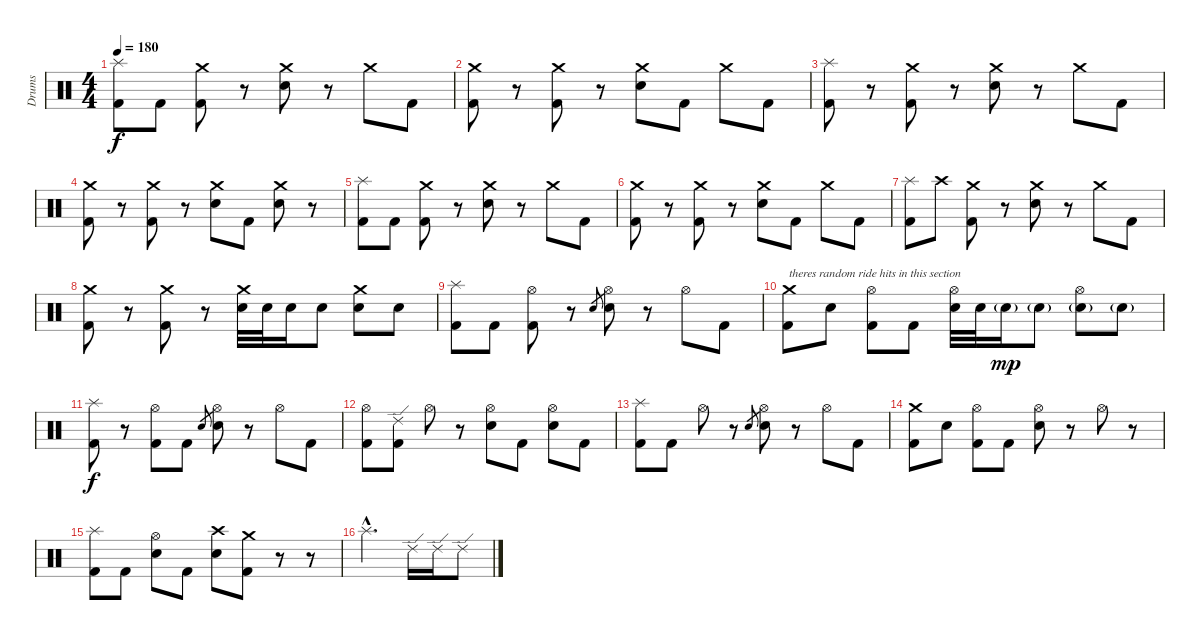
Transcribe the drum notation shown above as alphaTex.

\track ("Drums" "Drums") {instrument percussion}
\staff {score}
\articulation defaults
\ts (4 4)
\tempo 180
\clef neutral
\ks c
("Splash (hit)" "Kick (hit) 2").8{dy f} "Kick (hit) 2".8 ("Crash medium (hit)" "Kick (hit) 2").8 r.8 ("Crash medium (hit)" "Snare (hit) 2").8 r.8 "Crash medium (hit)".8 "Kick (hit) 2".8 |
("Crash medium (hit)" "Kick (hit) 2").8 r.8 ("Crash medium (hit)" "Kick (hit) 2").8 r.8 ("Crash medium (hit)" "Snare (hit) 2").8 "Kick (hit) 2".8 "Crash medium (hit)".8 "Kick (hit) 2".8 |
("Splash (hit)" "Kick (hit) 2").8 r.8 ("Crash medium (hit)" "Kick (hit) 2").8 r.8 ("Crash medium (hit)" "Snare (hit) 2").8 r.8 "Crash medium (hit)".8 "Kick (hit) 2".8 |
("Crash medium (hit)" "Kick (hit) 2").8 r.8 ("Crash medium (hit)" "Kick (hit) 2").8 r.8 ("Crash medium (hit)" "Snare (hit) 2").8 "Kick (hit) 2".8 ("Crash medium (hit)" "Snare (hit) 2").8 r.8 |
("Splash (hit)" "Kick (hit) 2").8 "Kick (hit) 2".8 ("Crash medium (hit)" "Kick (hit) 2").8 r.8 ("Crash medium (hit)" "Snare (hit) 2").8 r.8 "Crash medium (hit)".8 "Kick (hit) 2".8 |
("Crash medium (hit)" "Kick (hit) 2").8 r.8 ("Crash medium (hit)" "Kick (hit) 2").8 r.8 ("Crash medium (hit)" "Snare (hit) 2").8 "Kick (hit) 2".8 "Crash medium (hit)".8 "Kick (hit) 2".8 |
("Splash (hit)" "Kick (hit) 2").8 "Crash high (hit)".8 ("Crash medium (hit)" "Kick (hit) 2").8 r.8 ("Crash medium (hit)" "Snare (hit) 2").8 r.8 "Crash medium (hit)".8 "Kick (hit) 2".8 |
("Crash medium (hit)" "Kick (hit) 2").8 r.8 ("Crash medium (hit)" "Kick (hit) 2").8 r.8 ("Crash medium (hit)" "Snare (hit) 2").32 "Snare (hit) 2".32 "Snare (hit) 2".16 "Snare (hit) 2".8 ("Crash medium (hit)" "Snare (hit) 2").8 "Snare (hit) 2".8 |
("Splash (hit)" "Kick (hit) 2").8 "Kick (hit) 2".8 ("Hi-Hat (open)" "Kick (hit) 2").8 r.8 "Snare (hit) 2".8{gr} ("Hi-Hat (open)" "Snare (hit) 2").8 r.8 "Hi-Hat (open)".8 "Kick (hit) 2".8 |
("Crash medium (hit)" "Kick (hit) 2").8{txt "theres random ride hits in this section"} "Snare (hit) 2".8 ("Hi-Hat (open)" "Kick (hit) 2").8 "Kick (hit) 2".8 ("Hi-Hat (open)" "Snare (hit) 2").32 "Snare (hit) 2".32 "Snare (hit) 2"{g}.16{dy mp} "Snare (hit) 2"{g}.8 ("Hi-Hat (open)" "Snare (hit) 2"{g}).8 "Snare (hit) 2"{g}.8 |
("Splash (hit)" "Kick (hit) 2").8{dy f} r.8 ("Hi-Hat (open)" "Kick (hit) 2").8 "Kick (hit) 2".8 "Snare (hit) 2".8{gr} ("Hi-Hat (open)" "Snare (hit) 2").8 r.8 "Hi-Hat (open)".8 "Kick (hit) 2".8 |
("Hi-Hat (open)" "Kick (hit) 2").8 ("Ride (edge) 2" "Kick (hit) 2").8 "Hi-Hat (open)".8 r.8 ("Hi-Hat (open)" "Snare (hit) 2").8 "Kick (hit) 2".8 ("Hi-Hat (open)" "Snare (hit) 2").8 "Kick (hit) 2".8 |
("Splash (hit)" "Kick (hit) 2").8 "Kick (hit) 2".8 "Hi-Hat (open)".8 r.8 "Snare (hit) 2".8{gr} ("Hi-Hat (open)" "Snare (hit) 2").8 r.8 "Hi-Hat (open)".8 "Kick (hit) 2".8 |
("Crash medium (hit)" "Kick (hit) 2").8 "Snare (hit) 2".8 ("Hi-Hat (open)" "Kick (hit) 2").8 "Kick (hit) 2".8 ("Hi-Hat (open)" "Snare (hit) 2").8 r.8 "Hi-Hat (open)".8 r.8 |
("Splash (hit)" "Kick (hit) 2").8 "Kick (hit) 2".8 ("Hi-Hat (open)" "Snare (hit) 2").8 "Kick (hit) 2".8 ("Crash high (hit)" "Snare (hit) 2").8 ("Crash medium (hit)" "Kick (hit) 2").8 r.8 r.8 |
"Splash (hit)"{hac}.2{d} "Ride (edge) 2".16 "Ride (edge) 2".16 "Ride (edge) 2".8
